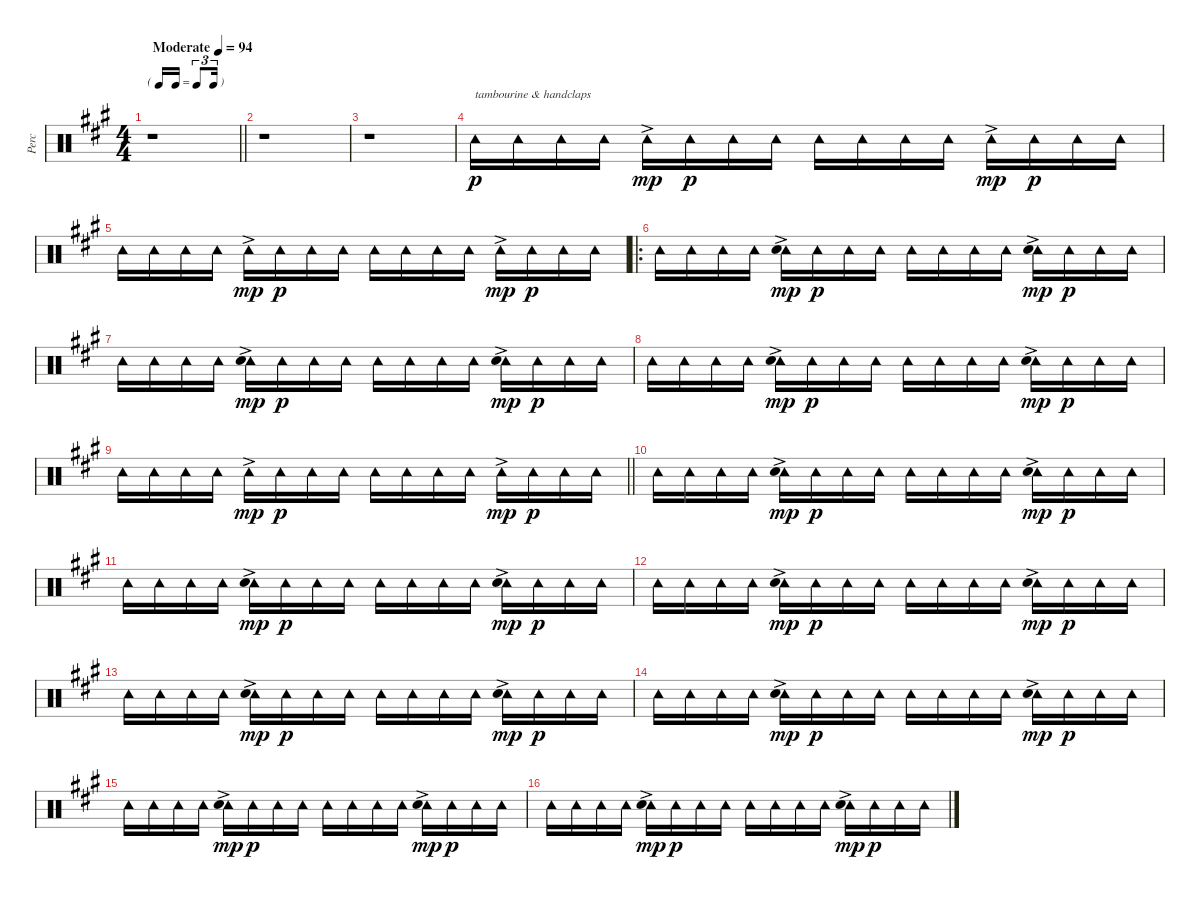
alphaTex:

\track ("Perc" "Perc") {instrument percussion}
\staff {score}
\articulation defaults
\ts (4 4)
\tf triplet16th
\tempo (94 "Moderate")
\clef neutral
\barLineRight lightlight
\ks a
r.1{dy p volume 16} |
r.1 |
r.1 |
"Tambourine (hit)".16{txt "tambourine & handclaps"} "Tambourine (hit)".16 "Tambourine (hit)".16 "Tambourine (hit)".16 "Tambourine (hit)"{ac}.16{dy mp} "Tambourine (hit)".16{dy p} "Tambourine (hit)".16 "Tambourine (hit)".16 "Tambourine (hit)".16 "Tambourine (hit)".16 "Tambourine (hit)".16 "Tambourine (hit)".16 "Tambourine (hit)"{ac}.16{dy mp} "Tambourine (hit)".16{dy p} "Tambourine (hit)".16 "Tambourine (hit)".16 |
"Tambourine (hit)".16 "Tambourine (hit)".16 "Tambourine (hit)".16 "Tambourine (hit)".16 "Tambourine (hit)"{ac}.16{dy mp} "Tambourine (hit)".16{dy p} "Tambourine (hit)".16 "Tambourine (hit)".16 "Tambourine (hit)".16 "Tambourine (hit)".16 "Tambourine (hit)".16 "Tambourine (hit)".16 "Tambourine (hit)"{ac}.16{dy mp} "Tambourine (hit)".16{dy p} "Tambourine (hit)".16 "Tambourine (hit)".16 |
\ro "Tambourine (hit)".16 "Tambourine (hit)".16 "Tambourine (hit)".16 "Tambourine (hit)".16
("Tambourine (hit)"{ac} "Hand Clap (hit)").16{dy mp} "Tambourine (hit)".16{dy p} "Tambourine (hit)".16 "Tambourine (hit)".16 "Tambourine (hit)".16 "Tambourine (hit)".16 "Tambourine (hit)".16 "Tambourine (hit)".16 ("Tambourine (hit)"{ac} "Hand Clap (hit)").16{dy mp} "Tambourine (hit)".16{dy p} "Tambourine (hit)".16 "Tambourine (hit)".16 |
"Tambourine (hit)".16 "Tambourine (hit)".16 "Tambourine (hit)".16 "Tambourine (hit)".16 ("Tambourine (hit)"{ac} "Hand Clap (hit)").16{dy mp} "Tambourine (hit)".16{dy p} "Tambourine (hit)".16 "Tambourine (hit)".16 "Tambourine (hit)".16 "Tambourine (hit)".16 "Tambourine (hit)".16 "Tambourine (hit)".16 ("Tambourine (hit)"{ac} "Hand Clap (hit)").16{dy mp} "Tambourine (hit)".16{dy p} "Tambourine (hit)".16 "Tambourine (hit)".16 |
"Tambourine (hit)".16 "Tambourine (hit)".16 "Tambourine (hit)".16 "Tambourine (hit)".16 ("Tambourine (hit)"{ac} "Hand Clap (hit)").16{dy mp} "Tambourine (hit)".16{dy p} "Tambourine (hit)".16 "Tambourine (hit)".16 "Tambourine (hit)".16 "Tambourine (hit)".16 "Tambourine (hit)".16 "Tambourine (hit)".16 ("Tambourine (hit)"{ac} "Hand Clap (hit)").16{dy mp} "Tambourine (hit)".16{dy p} "Tambourine (hit)".16 "Tambourine (hit)".16 |
\barLineRight lightlight "Tambourine (hit)".16 "Tambourine (hit)".16 "Tambourine (hit)".16 "Tambourine (hit)".16 "Tambourine (hit)"{ac}.16{dy mp} "Tambourine (hit)".16{dy p} "Tambourine (hit)".16 "Tambourine (hit)".16 "Tambourine (hit)".16 "Tambourine (hit)".16 "Tambourine (hit)".16 "Tambourine (hit)".16 "Tambourine (hit)"{ac}.16{dy mp} "Tambourine (hit)".16{dy p} "Tambourine (hit)".16 "Tambourine (hit)".16
|
"Tambourine (hit)".16 "Tambourine (hit)".16 "Tambourine (hit)".16 "Tambourine (hit)".16 ("Tambourine (hit)"{ac} "Hand Clap (hit)").16{dy mp} "Tambourine (hit)".16{dy p} "Tambourine (hit)".16 "Tambourine (hit)".16 "Tambourine (hit)".16 "Tambourine (hit)".16 "Tambourine (hit)".16 "Tambourine (hit)".16 ("Tambourine (hit)"{ac} "Hand Clap (hit)").16{dy mp} "Tambourine (hit)".16{dy p} "Tambourine (hit)".16 "Tambourine (hit)".16 |
"Tambourine (hit)".16 "Tambourine (hit)".16 "Tambourine (hit)".16 "Tambourine (hit)".16 ("Tambourine (hit)"{ac} "Hand Clap (hit)").16{dy mp} "Tambourine (hit)".16{dy p} "Tambourine (hit)".16 "Tambourine (hit)".16 "Tambourine (hit)".16 "Tambourine (hit)".16 "Tambourine (hit)".16 "Tambourine (hit)".16 ("Tambourine (hit)"{ac} "Hand Clap (hit)").16{dy mp} "Tambourine (hit)".16{dy p} "Tambourine (hit)".16 "Tambourine (hit)".16 |
"Tambourine (hit)".16 "Tambourine (hit)".16 "Tambourine (hit)".16 "Tambourine (hit)".16 ("Tambourine (hit)"{ac} "Hand Clap (hit)").16{dy mp} "Tambourine (hit)".16{dy p} "Tambourine (hit)".16 "Tambourine (hit)".16 "Tambourine (hit)".16 "Tambourine (hit)".16 "Tambourine (hit)".16 "Tambourine (hit)".16 ("Tambourine (hit)"{ac} "Hand Clap (hit)").16{dy mp} "Tambourine (hit)".16{dy p} "Tambourine (hit)".16 "Tambourine (hit)".16 |
"Tambourine (hit)".16 "Tambourine (hit)".16 "Tambourine (hit)".16 "Tambourine (hit)".16 ("Tambourine (hit)"{ac} "Hand Clap (hit)").16{dy mp} "Tambourine (hit)".16{dy p} "Tambourine (hit)".16 "Tambourine (hit)".16 "Tambourine (hit)".16 "Tambourine (hit)".16 "Tambourine (hit)".16 "Tambourine (hit)".16 ("Tambourine (hit)"{ac} "Hand Clap (hit)").16{dy mp} "Tambourine (hit)".16{dy p} "Tambourine (hit)".16 "Tambourine (hit)".16 |
"Tambourine (hit)".16 "Tambourine (hit)".16 "Tambourine (hit)".16 "Tambourine (hit)".16 ("Tambourine (hit)"{ac} "Hand Clap (hit)").16{dy mp} "Tambourine (hit)".16{dy p} "Tambourine (hit)".16 "Tambourine (hit)".16 "Tambourine (hit)".16 "Tambourine (hit)".16 "Tambourine (hit)".16 "Tambourine (hit)".16 ("Tambourine (hit)"{ac} "Hand Clap (hit)").16{dy mp} "Tambourine (hit)".16{dy p} "Tambourine (hit)".16 "Tambourine (hit)".16 |
"Tambourine (hit)".16 "Tambourine (hit)".16 "Tambourine (hit)".16 "Tambourine (hit)".16 ("Tambourine (hit)"{ac} "Hand Clap (hit)").16{dy mp} "Tambourine (hit)".16{dy p} "Tambourine (hit)".16 "Tambourine (hit)".16 "Tambourine (hit)".16 "Tambourine (hit)".16 "Tambourine (hit)".16 "Tambourine (hit)".16 ("Tambourine (hit)"{ac} "Hand Clap (hit)").16{dy mp} "Tambourine (hit)".16{dy p} "Tambourine (hit)".16 "Tambourine (hit)".16 |
"Tambourine (hit)".16 "Tambourine (hit)".16 "Tambourine (hit)".16 "Tambourine (hit)".16 ("Tambourine (hit)"{ac} "Hand Clap (hit)").16{dy mp} "Tambourine (hit)".16{dy p} "Tambourine (hit)".16 "Tambourine (hit)".16 "Tambourine (hit)".16 "Tambourine (hit)".16 "Tambourine (hit)".16 "Tambourine (hit)".16 ("Tambourine (hit)"{ac} "Hand Clap (hit)").16{dy mp} "Tambourine (hit)".16{dy p} "Tambourine (hit)".16 "Tambourine (hit)".16
